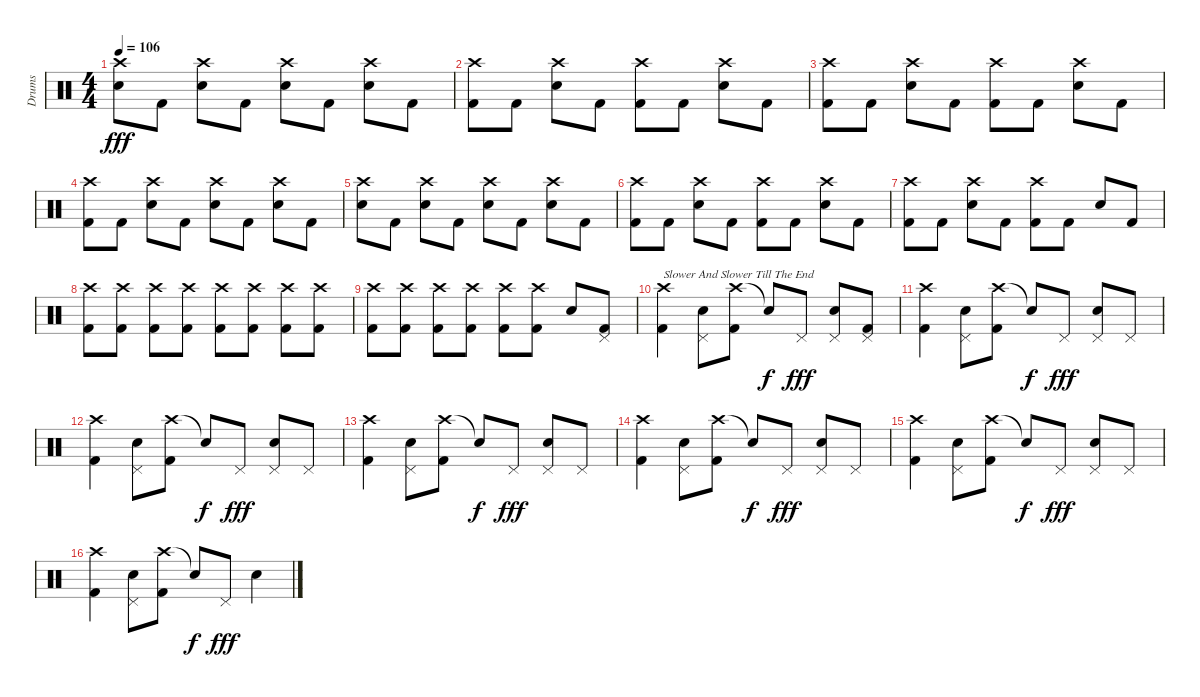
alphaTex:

\track ("Drums" "Drums") {instrument percussion}
\staff {score}
\articulation defaults
\ts (4 4)
\tempo 106
\clef neutral
\ks c
("Crash high (hit)" "Snare (hit) 2").8{dy fff} "Kick (hit) 2".8 ("Crash high (hit)" "Snare (hit) 2").8 "Kick (hit) 2".8 ("Crash high (hit)" "Snare (hit) 2").8 "Kick (hit) 2".8 ("Crash high (hit)" "Snare (hit) 2").8 "Kick (hit) 2".8 |
("Crash high (hit)" "Kick (hit) 2").8 "Kick (hit) 2".8 ("Crash high (hit)" "Snare (hit) 2").8 "Kick (hit) 2".8 ("Crash high (hit)" "Kick (hit) 2").8 "Kick (hit) 2".8 ("Crash high (hit)" "Snare (hit) 2").8 "Kick (hit) 2".8 |
("Crash high (hit)" "Kick (hit) 2").8 "Kick (hit) 2".8 ("Crash high (hit)" "Snare (hit) 2").8 "Kick (hit) 2".8 ("Crash high (hit)" "Kick (hit) 2").8 "Kick (hit) 2".8 ("Crash high (hit)" "Snare (hit) 2").8 "Kick (hit) 2".8 |
("Crash high (hit)" "Kick (hit) 2").8 "Kick (hit) 2".8 ("Crash high (hit)" "Snare (hit) 2").8 "Kick (hit) 2".8 ("Crash high (hit)" "Snare (hit) 2").8 "Kick (hit) 2".8 ("Crash high (hit)" "Snare (hit) 2").8 "Kick (hit) 2".8 |
("Crash high (hit)" "Snare (hit) 2").8 "Kick (hit) 2".8 ("Crash high (hit)" "Snare (hit) 2").8 "Kick (hit) 2".8 ("Crash high (hit)" "Snare (hit) 2").8 "Kick (hit) 2".8 ("Crash high (hit)" "Snare (hit) 2").8 "Kick (hit) 2".8 |
("Crash high (hit)" "Kick (hit) 2").8 "Kick (hit) 2".8 ("Crash high (hit)" "Snare (hit) 2").8 "Kick (hit) 2".8 ("Crash high (hit)" "Kick (hit) 2").8 "Kick (hit) 2".8 ("Crash high (hit)" "Snare (hit) 2").8 "Kick (hit) 2".8 |
("Crash high (hit)" "Kick (hit) 2").8 "Kick (hit) 2".8 ("Crash high (hit)" "Snare (hit) 2").8 "Kick (hit) 2".8 ("Crash high (hit)" "Kick (hit) 2").8 "Kick (hit) 2".8 "Snare (hit) 2".8 "Kick (hit) 2".8 |
("Crash high (hit)" "Kick (hit) 2").8 ("Crash high (hit)" "Kick (hit) 2").8 ("Crash high (hit)" "Kick (hit) 2").8 ("Crash high (hit)" "Kick (hit) 2").8 ("Crash high (hit)" "Kick (hit) 2").8 ("Crash high (hit)" "Kick (hit) 2").8 ("Crash high (hit)" "Kick (hit) 2").8 ("Crash high (hit)" "Kick (hit) 2").8 |
("Crash high (hit)" "Kick (hit) 2").8 ("Crash high (hit)" "Kick (hit) 2").8 ("Crash high (hit)" "Kick (hit) 2").8 ("Crash high (hit)" "Kick (hit) 2").8 ("Crash high (hit)" "Kick (hit) 2").8 ("Crash high (hit)" "Kick (hit) 2").8 "Snare (hit) 2".8 ("Pedal Hi-Hat (hit)" "Kick (hit) 2").8 |
("Crash high (hit)" "Kick (hit) 2").4{txt "Slower And Slower Till The End"} ("Pedal Hi-Hat (hit)" "Snare (hit) 2").8 ("Crash high (hit)" "Kick (hit) 2").8 "Snare (hit)"{t}.8{dy f} "Pedal Hi-Hat (hit)".8{dy fff} ("Pedal Hi-Hat (hit)" "Snare (hit) 2").8 ("Pedal Hi-Hat (hit)" "Kick (hit) 2").8 |
("Crash high (hit)" "Kick (hit) 2").4 ("Pedal Hi-Hat (hit)" "Snare (hit) 2").8 ("Crash high (hit)" "Kick (hit) 2").8 "Snare (hit)"{t}.8{dy f} "Pedal Hi-Hat (hit)".8{dy fff} ("Pedal Hi-Hat (hit)" "Snare (hit) 2").8 "Pedal Hi-Hat (hit)".8 |
("Crash high (hit)" "Kick (hit) 2").4 ("Pedal Hi-Hat (hit)" "Snare (hit) 2").8 ("Crash high (hit)" "Kick (hit) 2").8 "Snare (hit)"{t}.8{dy f} "Pedal Hi-Hat (hit)".8{dy fff} ("Pedal Hi-Hat (hit)" "Snare (hit) 2").8 "Pedal Hi-Hat (hit)".8 |
("Crash high (hit)" "Kick (hit) 2").4 ("Pedal Hi-Hat (hit)" "Snare (hit) 2").8 ("Crash high (hit)" "Kick (hit) 2").8 "Snare (hit)"{t}.8{dy f} "Pedal Hi-Hat (hit)".8{dy fff} ("Pedal Hi-Hat (hit)" "Snare (hit) 2").8 "Pedal Hi-Hat (hit)".8 |
("Crash high (hit)" "Kick (hit) 2").4 ("Pedal Hi-Hat (hit)" "Snare (hit) 2").8 ("Crash high (hit)" "Kick (hit) 2").8 "Snare (hit)"{t}.8{dy f} "Pedal Hi-Hat (hit)".8{dy fff} ("Pedal Hi-Hat (hit)" "Snare (hit) 2").8 "Pedal Hi-Hat (hit)".8 |
("Crash high (hit)" "Kick (hit) 2").4 ("Pedal Hi-Hat (hit)" "Snare (hit) 2").8 ("Crash high (hit)" "Kick (hit) 2").8 "Snare (hit)"{t}.8{dy f} "Pedal Hi-Hat (hit)".8{dy fff} ("Pedal Hi-Hat (hit)" "Snare (hit) 2").8 "Pedal Hi-Hat (hit)".8 |
("Crash high (hit)" "Kick (hit) 2").4 ("Pedal Hi-Hat (hit)" "Snare (hit) 2").8 ("Crash high (hit)" "Kick (hit) 2").8 "Snare (hit)"{t}.8{dy f} "Pedal Hi-Hat (hit)".8{dy fff} "Snare (hit) 2".4
